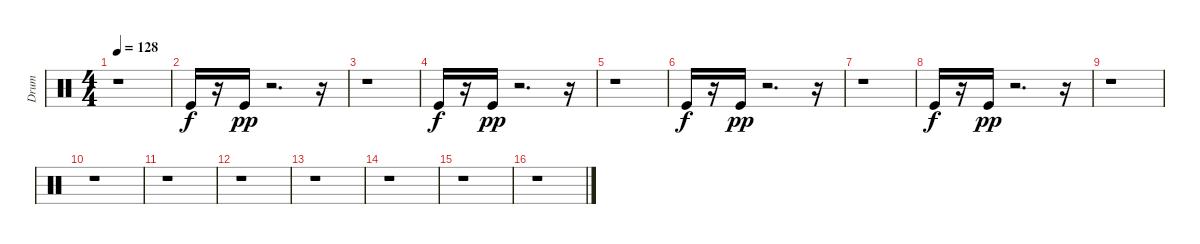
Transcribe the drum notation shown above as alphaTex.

\track ("Drum" "Drum") {instrument percussion}
\staff {score}
\articulation defaults
\ts (4 4)
\tempo 128
\clef neutral
\ks c
r.1{dy pp} |
"Kick (hit)".16{dy f} r.16 "Kick (hit)".16{dy pp} r.2{d} r.16 |
r.1 |
"Kick (hit)".16{dy f} r.16 "Kick (hit)".16{dy pp} r.2{d} r.16 |
r.1 |
"Kick (hit)".16{dy f} r.16 "Kick (hit)".16{dy pp} r.2{d} r.16 |
r.1 |
"Kick (hit)".16{dy f} r.16 "Kick (hit)".16{dy pp} r.2{d} r.16 |
r.1 |
r.1 |
r.1 |
r.1 |
r.1 |
r.1 |
r.1 |
r.1
